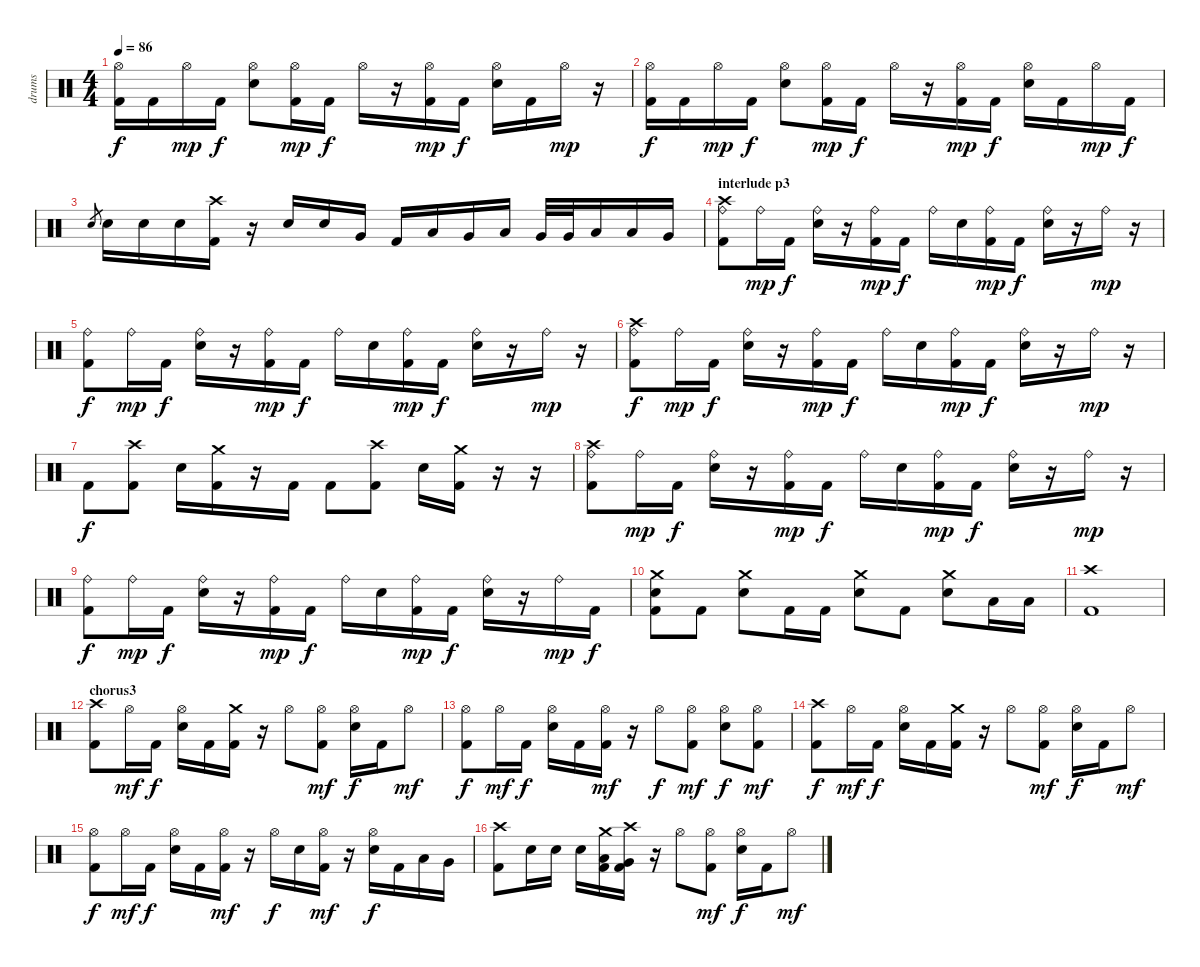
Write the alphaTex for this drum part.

\track ("drums" "drums") {instrument percussion}
\staff {score}
\articulation defaults
\ts (4 4)
\tempo 86
\clef neutral
\ks c
("Kick (hit) 2" "Hi-Hat (open)").16{dy f} "Kick (hit) 2".16 "Hi-Hat (open)".16{dy mp} "Kick (hit) 2".16{dy f} ("Electric Snare (hit)" "Hi-Hat (open)").8 ("Kick (hit) 2" "Hi-Hat (open)").16{dy mp} "Kick (hit) 2".16{dy f} "Hi-Hat (open)".16 r.16 ("Kick (hit) 2" "Hi-Hat (open)").16{dy mp} "Kick (hit) 2".16{dy f} ("Electric Snare (hit)" "Hi-Hat (open)").16 "Kick (hit) 2".16 "Hi-Hat (open)".16{dy mp} r.16 |
("Kick (hit) 2" "Hi-Hat (open)").16{dy f} "Kick (hit) 2".16 "Hi-Hat (open)".16{dy mp} "Kick (hit) 2".16{dy f} ("Electric Snare (hit)" "Hi-Hat (open)").8 ("Kick (hit) 2" "Hi-Hat (open)").16{dy mp} "Kick (hit) 2".16{dy f} "Hi-Hat (open)".16 r.16 ("Kick (hit) 2" "Hi-Hat (open)").16{dy mp} "Kick (hit) 2".16{dy f} ("Electric Snare (hit)" "Hi-Hat (open)").16 "Kick (hit) 2".16 "Hi-Hat (open)".16{dy mp} "Kick (hit) 2".16{dy f} |
"Electric Snare (hit)".8{gr} "Electric Snare (hit)".16 "Electric Snare (hit)".16 "Electric Snare (hit)".16 ("Kick (hit) 2" "Crash high (hit)").16 r.16 "Electric Snare (hit)".16 "Electric Snare (hit)".16 "Very Low Tom (hit)".16 "Kick (hit) 2".16 "Low Tom (hit)".16 "Very Low Tom (hit)".16 "Low Tom (hit)".16 "Very Low Tom (hit)".32 "Very Low Tom (hit)".32 "Low Floor Tom (hit)".16 "Low Tom (hit)".16 "Very Low Tom (hit)".16 |
\section ("" "interlude p3")
("Kick (hit) 2" "Ride (bell)" "Crash high (hit)").8 "Ride (bell)".16{dy mp} "Kick (hit) 2".16{dy f} ("Electric Snare (hit)" "Ride (bell)").16 r.16 ("Kick (hit) 2" "Ride (bell)").16{dy mp} "Kick (hit) 2".16{dy f} "Ride (bell)".16 "Electric Snare (hit)".16 ("Kick (hit) 2" "Ride (bell)").16{dy mp} "Kick (hit) 2".16{dy f} ("Electric Snare (hit)" "Ride (bell)").16 r.16 "Ride (bell)".16{dy mp} r.16 |
("Kick (hit) 2" "Ride (bell)").8{dy f} "Ride (bell)".16{dy mp} "Kick (hit) 2".16{dy f} ("Electric Snare (hit)" "Ride (bell)").16 r.16 ("Kick (hit) 2" "Ride (bell)").16{dy mp} "Kick (hit) 2".16{dy f} "Ride (bell)".16 "Electric Snare (hit)".16 ("Kick (hit) 2" "Ride (bell)").16{dy mp} "Kick (hit) 2".16{dy f} ("Electric Snare (hit)" "Ride (bell)").16 r.16 "Ride (bell)".16{dy mp} r.16 |
("Kick (hit) 2" "Ride (bell)" "Crash high (hit)").8{dy f} "Ride (bell)".16{dy mp} "Kick (hit) 2".16{dy f} ("Electric Snare (hit)" "Ride (bell)").16 r.16 ("Kick (hit) 2" "Ride (bell)").16{dy mp} "Kick (hit) 2".16{dy f} "Ride (bell)".16 "Electric Snare (hit)".16 ("Kick (hit) 2" "Ride (bell)").16{dy mp} "Kick (hit) 2".16{dy f} ("Electric Snare (hit)" "Ride (bell)").16 r.16 "Ride (bell)".16{dy mp} r.16 |
"Kick (hit) 2".8{dy f} ("Kick (hit) 2" "Crash high (hit)").8 "Electric Snare (hit)".16 ("Kick (hit) 2" "Crash medium (hit)").16 r.16 "Kick (hit) 2".16 "Kick (hit) 2".8 ("Kick (hit) 2" "Crash high (hit)").8 "Electric Snare (hit)".16 ("Kick (hit) 2" "Crash medium (hit)").16 r.16 r.16 |
("Kick (hit) 2" "Ride (bell)" "Crash high (hit)").8 "Ride (bell)".16{dy mp} "Kick (hit) 2".16{dy f} ("Electric Snare (hit)" "Ride (bell)").16 r.16 ("Kick (hit) 2" "Ride (bell)").16{dy mp} "Kick (hit) 2".16{dy f} "Ride (bell)".16 "Electric Snare (hit)".16 ("Kick (hit) 2" "Ride (bell)").16{dy mp} "Kick (hit) 2".16{dy f} ("Electric Snare (hit)" "Ride (bell)").16 r.16 "Ride (bell)".16{dy mp} r.16 |
("Kick (hit) 2" "Ride (bell)").8{dy f} "Ride (bell)".16{dy mp} "Kick (hit) 2".16{dy f} ("Electric Snare (hit)" "Ride (bell)").16 r.16 ("Kick (hit) 2" "Ride (bell)").16{dy mp} "Kick (hit) 2".16{dy f} "Ride (bell)".16 "Electric Snare (hit)".16 ("Kick (hit) 2" "Ride (bell)").16{dy mp} "Kick (hit) 2".16{dy f} ("Electric Snare (hit)" "Ride (bell)").16 r.16 "Ride (bell)".16{dy mp} "Kick (hit) 2".16{dy f} |
("Kick (hit) 2" "Electric Snare (hit)" "Crash medium (hit)").8 "Kick (hit) 2".8 ("Electric Snare (hit)" "Crash medium (hit)").8 "Kick (hit) 2".16 "Kick (hit) 2".16 ("Electric Snare (hit)" "Crash medium (hit)").8 "Kick (hit) 2".8 ("Electric Snare (hit)" "Crash medium (hit)").8 "Low Tom (hit)".16 "Low Tom (hit)".16 |
("Kick (hit) 2" "Crash high (hit)").1 |
\section ("" "chorus3")
("Kick (hit) 2" "Crash high (hit)").8 "Hi-Hat (open)".16{dy mf} "Kick (hit) 2".16{dy f} ("Electric Snare (hit)" "Hi-Hat (open)").16 "Kick (hit) 2".16 ("Kick (hit) 2" "Crash medium (hit)").16 r.16 "Hi-Hat (open)".8 ("Kick (hit) 2" "Hi-Hat (open)").8{dy mf} ("Electric Snare (hit)" "Hi-Hat (open)").16{dy f} "Kick (hit) 2".16 "Hi-Hat (open)".8{dy mf} |
("Kick (hit) 2" "Hi-Hat (open)").8{dy f} "Hi-Hat (open)".16{dy mf} "Kick (hit) 2".16{dy f} ("Electric Snare (hit)" "Hi-Hat (open)").16 "Kick (hit) 2".16 ("Kick (hit) 2" "Hi-Hat (open)").16{dy mf} r.16 "Hi-Hat (open)".8{dy f} ("Kick (hit) 2" "Hi-Hat (open)").8{dy mf} ("Electric Snare (hit)" "Hi-Hat (open)").8{dy f} ("Kick (hit) 2" "Hi-Hat (open)").8{dy mf} |
("Kick (hit) 2" "Crash high (hit)").8{dy f} "Hi-Hat (open)".16{dy mf} "Kick (hit) 2".16{dy f} ("Electric Snare (hit)" "Hi-Hat (open)").16 "Kick (hit) 2".16 ("Kick (hit) 2" "Crash medium (hit)").16 r.16 "Hi-Hat (open)".8 ("Kick (hit) 2" "Hi-Hat (open)").8{dy mf} ("Electric Snare (hit)" "Hi-Hat (open)").16{dy f} "Kick (hit) 2".16 "Hi-Hat (open)".8{dy mf} |
("Kick (hit) 2" "Hi-Hat (open)").8{dy f} "Hi-Hat (open)".16{dy mf} "Kick (hit) 2".16{dy f} ("Electric Snare (hit)" "Hi-Hat (open)").16 "Kick (hit) 2".16 ("Kick (hit) 2" "Hi-Hat (open)").16{dy mf} r.16 "Hi-Hat (open)".16{dy f} "Electric Snare (hit)".16 ("Kick (hit) 2" "Hi-Hat (open)").16{dy mf} r.16 ("Electric Snare (hit)" "Hi-Hat (open)").16{dy f} "Kick (hit) 2".16 "Low Tom (hit)".16 "Very Low Tom (hit)".16 |
("Kick (hit) 2" "Crash high (hit)").8 "Electric Snare (hit)".16 "Electric Snare (hit)".16 "Electric Snare (hit)".16 ("Kick (hit) 2" "Low Tom (hit)" "Crash medium (hit)").16 ("Kick (hit) 2" "Very Low Tom (hit)" "Crash high (hit)").16 r.16 "Hi-Hat (open)".8 ("Kick (hit) 2" "Hi-Hat (open)").8{dy mf} ("Electric Snare (hit)" "Hi-Hat (open)").16{dy f} "Kick (hit) 2".16 "Hi-Hat (open)".8{dy mf}
